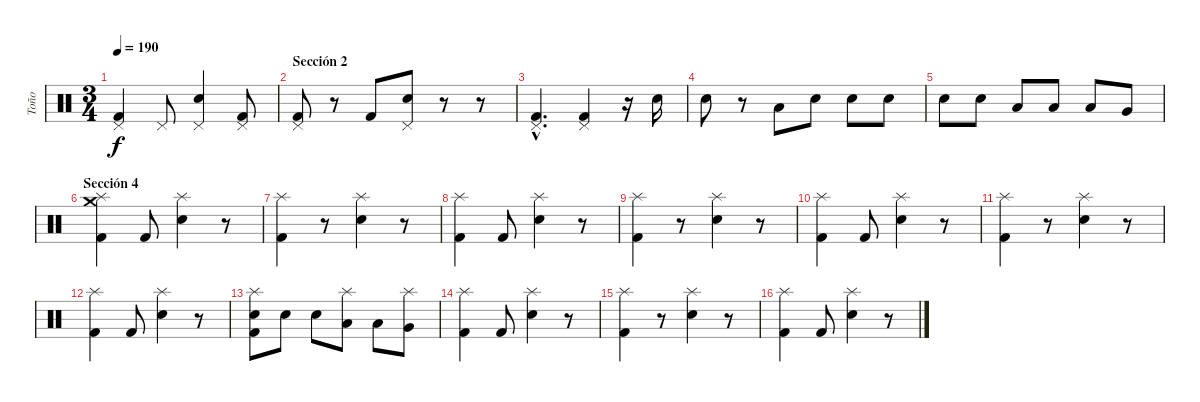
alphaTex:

\track ("Toño" "Toño") {instrument percussion}
\staff {score}
\articulation defaults
\ts (3 4)
\tempo 190
\clef neutral
\ks c
("Pedal Hi-Hat (hit)" "Kick (hit) 2").4{dy f} "Pedal Hi-Hat (hit)".8 ("Pedal Hi-Hat (hit)" "Electric Snare (hit)").4 ("Pedal Hi-Hat (hit)" "Kick (hit) 2").8 |
\section ("" "Sección 2")
("Pedal Hi-Hat (hit)" "Kick (hit) 2").8 r.8 "Kick (hit) 2".8 ("Pedal Hi-Hat (hit)" "Electric Snare (hit)").8 r.8 r.8 |
("Pedal Hi-Hat (hit)"{hac} "Kick (hit) 2"{hac}).4{d} ("Pedal Hi-Hat (hit)" "Kick (hit) 2").4 r.16 "Electric Snare (hit)".16 |
"Electric Snare (hit)".8 r.8 "Low Tom (hit)".8 "Electric Snare (hit)".8 "Electric Snare (hit)".8 "Electric Snare (hit)".8 |
"Electric Snare (hit)".8 "Electric Snare (hit)".8 "Low Tom (hit)".8 "Low Tom (hit)".8 "Low Tom (hit)".8 "Very Low Tom (hit)".8 |
\section ("" "Sección 4")
("Splash (hit)" "Crash medium (hit)" "Kick (hit) 2").4 "Kick (hit) 2".8 ("Splash (hit)" "Electric Snare (hit)").4 r.8 |
("Splash (hit)" "Kick (hit) 2").4 r.8 ("Splash (hit)" "Electric Snare (hit)").4 r.8 |
("Splash (hit)" "Kick (hit) 2").4 "Kick (hit) 2".8 ("Splash (hit)" "Electric Snare (hit)").4 r.8 |
("Splash (hit)" "Kick (hit) 2").4 r.8 ("Splash (hit)" "Electric Snare (hit)").4 r.8 |
("Splash (hit)" "Kick (hit) 2").4 "Kick (hit) 2".8 ("Splash (hit)" "Electric Snare (hit)").4 r.8 |
("Splash (hit)" "Kick (hit) 2").4 r.8 ("Splash (hit)" "Electric Snare (hit)").4 r.8 |
("Splash (hit)" "Kick (hit) 2").4 "Kick (hit) 2".8 ("Splash (hit)" "Electric Snare (hit)").4 r.8 |
("Splash (hit)" "Electric Snare (hit)" "Kick (hit) 2").8 "Electric Snare (hit)".8 "Electric Snare (hit)".8 ("Splash (hit)" "Low Tom (hit)").8 "Low Tom (hit)".8 ("Splash (hit)" "Very Low Tom (hit)").8 |
("Splash (hit)" "Kick (hit) 2").4 "Kick (hit) 2".8 ("Splash (hit)" "Electric Snare (hit)").4 r.8 |
("Splash (hit)" "Kick (hit) 2").4 r.8 ("Splash (hit)" "Electric Snare (hit)").4 r.8 |
("Splash (hit)" "Kick (hit) 2").4 "Kick (hit) 2".8 ("Splash (hit)" "Electric Snare (hit)").4 r.8
